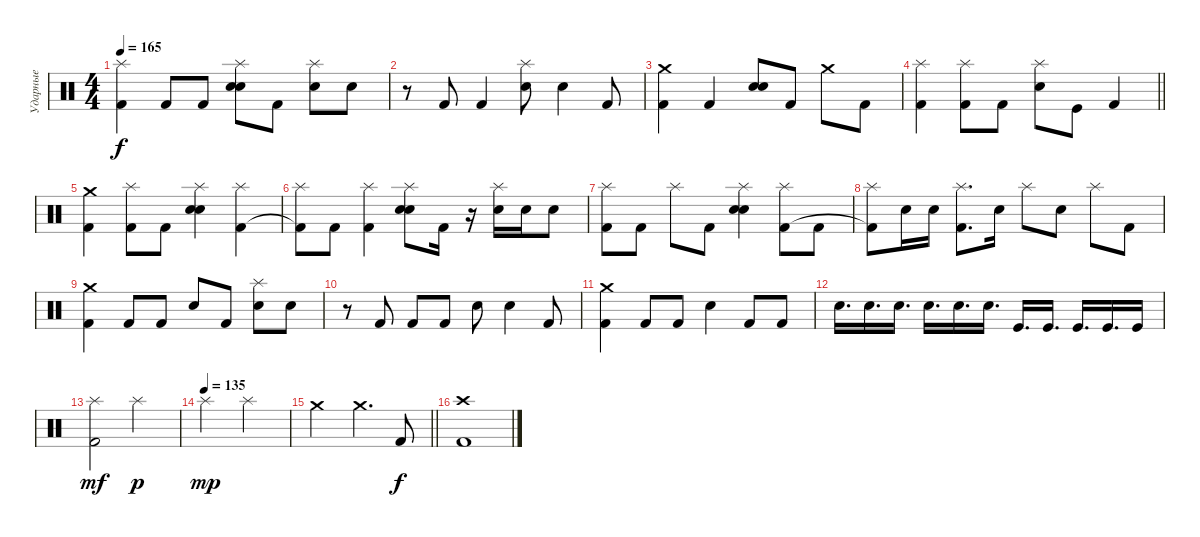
\track ("Ударные" "Ударные") {instrument percussion}
\staff {score}
\articulation defaults
\ts (4 4)
\tempo 165
\clef neutral
\ks c
("Splash (hit)" "Kick (hit) 2").4{dy f} "Kick (hit) 2".8 "Kick (hit) 2".8 ("Splash (hit)" "Electric Snare (hit)" "Snare (hit) 2").8 "Kick (hit) 2".8 ("Splash (hit)" "Electric Snare (hit)").8 "Electric Snare (hit)".8 |
r.8 "Kick (hit) 2".8 "Kick (hit) 2".4 ("Splash (hit)" "Electric Snare (hit)").8 "Electric Snare (hit)".4 "Kick (hit) 2".8 |
("Crash medium (hit)" "Kick (hit) 2").4 "Kick (hit) 2".4 ("Electric Snare (hit)" "Snare (hit) 2").8 "Kick (hit) 2".8 "Crash medium (hit)".8 "Kick (hit) 2".8 |
\barLineRight lightlight
("Splash (hit)" "Kick (hit) 2").4 ("Splash (hit)" "Kick (hit) 2").8 "Kick (hit) 2".8 ("Splash (hit)" "Electric Snare (hit)").8 "Kick (hit)".8 "Kick (hit) 2".4 |
("Crash medium (hit)" "Kick (hit) 2").4 ("Splash (hit)" "Kick (hit) 2").8 "Kick (hit) 2".8 ("Splash (hit)" "Electric Snare (hit)" "Snare (hit) 2").4 ("Splash (hit)" "Kick (hit) 2").4 |
("Splash (hit)" "Kick (hit) 2"{t}).8 "Kick (hit) 2".8 ("Splash (hit)" "Kick (hit) 2").4 ("Splash (hit)" "Electric Snare (hit)" "Snare (hit) 2").8 "Kick (hit) 2".16 r.16 ("Splash (hit)" "Electric Snare (hit)").16 "Electric Snare (hit)".16 "Electric Snare (hit)".8 |
("Splash (hit)" "Kick (hit) 2").8 "Kick (hit) 2".8 "Splash (hit)".8 "Kick (hit) 2".8 ("Splash (hit)" "Electric Snare (hit)" "Snare (hit) 2").4 ("Splash (hit)" "Kick (hit) 2").8 "Kick (hit) 2".8 |
("Splash (hit)" "Kick (hit) 2"{t}).8 "Electric Snare (hit)".16 "Electric Snare (hit)".16 ("Splash (hit)" "Kick (hit) 2").8{d} "Electric Snare (hit)".16 "Splash (hit)".8 "Electric Snare (hit)".8 "Splash (hit)".8 "Kick (hit) 2".8 |
("Crash medium (hit)" "Kick (hit) 2").4 "Kick (hit) 2".8 "Kick (hit) 2".8 "Electric Snare (hit)".8 "Kick (hit) 2".8 ("Splash (hit)" "Electric Snare (hit)").8 "Electric Snare (hit)".8 |
r.8 "Kick (hit) 2".8 "Kick (hit) 2".8 "Kick (hit) 2".8 "Electric Snare (hit)".8 "Electric Snare (hit)".4 "Kick (hit) 2".8 |
("Crash medium (hit)" "Kick (hit) 2").4 "Kick (hit) 2".8 "Kick (hit) 2".8 "Electric Snare (hit)".4 "Kick (hit) 2".8 "Kick (hit) 2".8 |
"Electric Snare (hit)".16{d} "Electric Snare (hit)".16{d} "Electric Snare (hit)".16{d} "Electric Snare (hit)".16{d} "Electric Snare (hit)".16{d} "Electric Snare (hit)".16{d} "Kick (hit)".16{d} "Kick (hit)".16{d} "Kick (hit)".16{d} "Kick (hit)".16{d} "Kick (hit)".16 |
("Splash (hit)" "Kick (hit) 2").2{dy mf} "Splash (hit)".2{dy p} |
\tempo (135)
"Splash (hit)".2{dy mp} "Splash (hit)".2 |
\barLineRight lightlight "Crash medium (hit)".2 "Crash medium (hit)".4{d} "Kick (hit) 2".8{dy f}
|
("Crash high (hit)" "Kick (hit) 2").1
